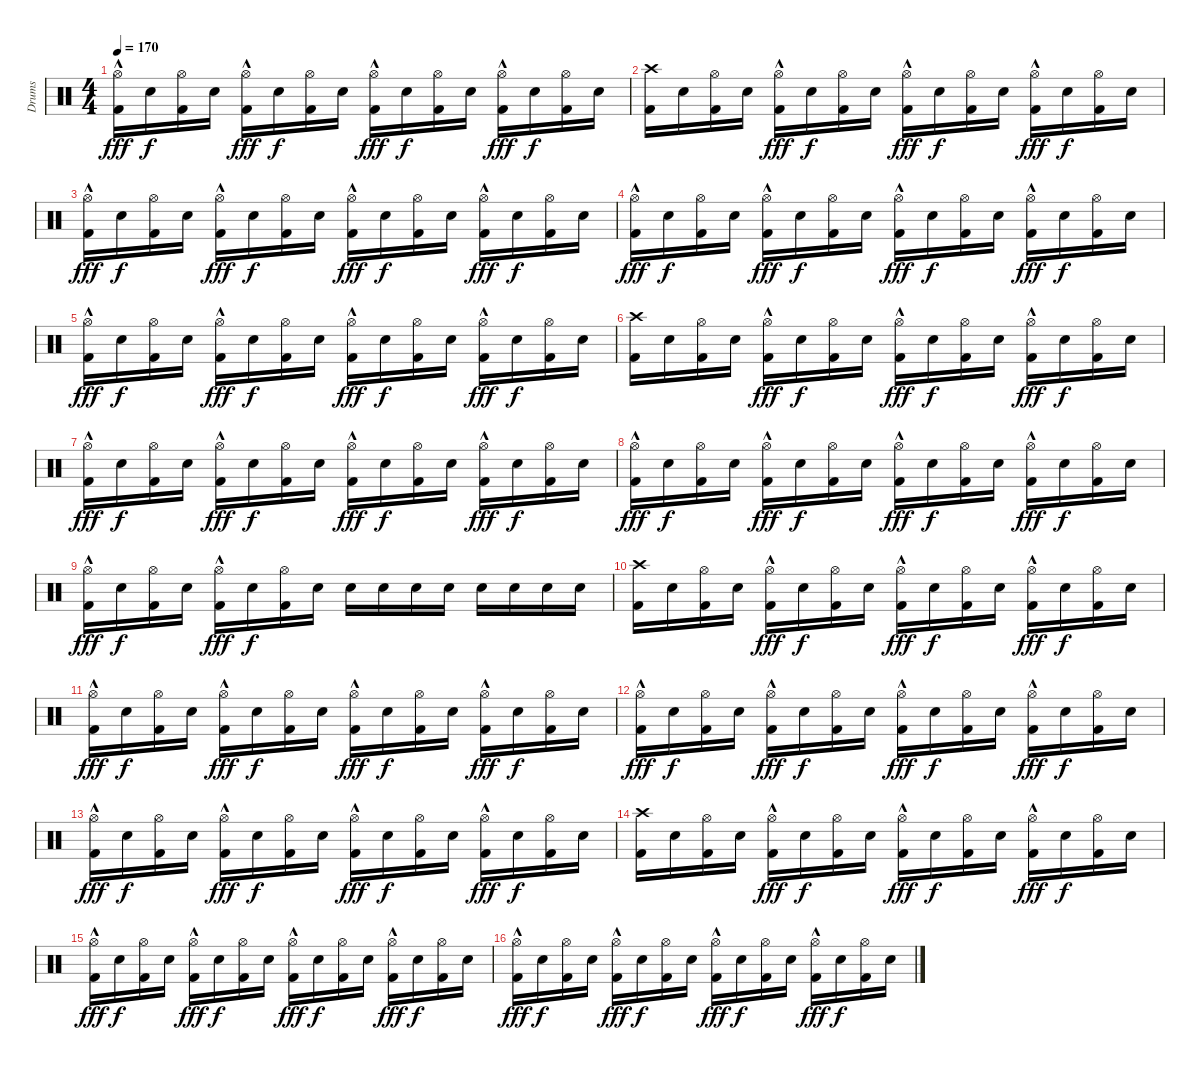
\track ("Drums" "Drums") {instrument percussion}
\staff {score}
\articulation defaults
\ts (4 4)
\tempo 170
\clef neutral
\ks c
("Hi-Hat (open)"{hac} "Kick (hit) 2").16{dy fff} "Snare (hit) 2".16{dy f} ("Hi-Hat (open)" "Kick (hit) 2").16 "Snare (hit) 2".16 ("Hi-Hat (open)"{hac} "Kick (hit) 2").16{dy fff} "Snare (hit) 2".16{dy f} ("Hi-Hat (open)" "Kick (hit) 2").16 "Snare (hit) 2".16 ("Hi-Hat (open)"{hac} "Kick (hit) 2").16{dy fff} "Snare (hit) 2".16{dy f} ("Hi-Hat (open)" "Kick (hit) 2").16 "Snare (hit) 2".16 ("Hi-Hat (open)"{hac} "Kick (hit) 2").16{dy fff} "Snare (hit) 2".16{dy f} ("Hi-Hat (open)" "Kick (hit) 2").16 "Snare (hit) 2".16 |
("Crash high (hit)" "Kick (hit) 2").16 "Snare (hit) 2".16 ("Hi-Hat (open)" "Kick (hit) 2").16 "Snare (hit) 2".16 ("Hi-Hat (open)"{hac} "Kick (hit) 2").16{dy fff} "Snare (hit) 2".16{dy f} ("Hi-Hat (open)" "Kick (hit) 2").16 "Snare (hit) 2".16 ("Hi-Hat (open)"{hac} "Kick (hit) 2").16{dy fff} "Snare (hit) 2".16{dy f} ("Hi-Hat (open)" "Kick (hit) 2").16 "Snare (hit) 2".16 ("Hi-Hat (open)"{hac} "Kick (hit) 2").16{dy fff} "Snare (hit) 2".16{dy f} ("Hi-Hat (open)" "Kick (hit) 2").16 "Snare (hit) 2".16 |
("Hi-Hat (open)"{hac} "Kick (hit) 2").16{dy fff} "Snare (hit) 2".16{dy f} ("Hi-Hat (open)" "Kick (hit) 2").16 "Snare (hit) 2".16 ("Hi-Hat (open)"{hac} "Kick (hit) 2").16{dy fff} "Snare (hit) 2".16{dy f} ("Hi-Hat (open)" "Kick (hit) 2").16 "Snare (hit) 2".16 ("Hi-Hat (open)"{hac} "Kick (hit) 2").16{dy fff} "Snare (hit) 2".16{dy f} ("Hi-Hat (open)" "Kick (hit) 2").16 "Snare (hit) 2".16 ("Hi-Hat (open)"{hac} "Kick (hit) 2").16{dy fff} "Snare (hit) 2".16{dy f} ("Hi-Hat (open)" "Kick (hit) 2").16 "Snare (hit) 2".16 |
("Hi-Hat (open)"{hac} "Kick (hit) 2").16{dy fff} "Snare (hit) 2".16{dy f} ("Hi-Hat (open)" "Kick (hit) 2").16 "Snare (hit) 2".16 ("Hi-Hat (open)"{hac} "Kick (hit) 2").16{dy fff} "Snare (hit) 2".16{dy f} ("Hi-Hat (open)" "Kick (hit) 2").16 "Snare (hit) 2".16 ("Hi-Hat (open)"{hac} "Kick (hit) 2").16{dy fff} "Snare (hit) 2".16{dy f} ("Hi-Hat (open)" "Kick (hit) 2").16 "Snare (hit) 2".16 ("Hi-Hat (open)"{hac} "Kick (hit) 2").16{dy fff} "Snare (hit) 2".16{dy f} ("Hi-Hat (open)" "Kick (hit) 2").16 "Snare (hit) 2".16 |
("Hi-Hat (open)"{hac} "Kick (hit) 2").16{dy fff} "Snare (hit) 2".16{dy f} ("Hi-Hat (open)" "Kick (hit) 2").16 "Snare (hit) 2".16 ("Hi-Hat (open)"{hac} "Kick (hit) 2").16{dy fff} "Snare (hit) 2".16{dy f} ("Hi-Hat (open)" "Kick (hit) 2").16 "Snare (hit) 2".16 ("Hi-Hat (open)"{hac} "Kick (hit) 2").16{dy fff} "Snare (hit) 2".16{dy f} ("Hi-Hat (open)" "Kick (hit) 2").16 "Snare (hit) 2".16 ("Hi-Hat (open)"{hac} "Kick (hit) 2").16{dy fff} "Snare (hit) 2".16{dy f} ("Hi-Hat (open)" "Kick (hit) 2").16 "Snare (hit) 2".16 |
("Crash high (hit)" "Kick (hit) 2").16 "Snare (hit) 2".16 ("Hi-Hat (open)" "Kick (hit) 2").16 "Snare (hit) 2".16 ("Hi-Hat (open)"{hac} "Kick (hit) 2").16{dy fff} "Snare (hit) 2".16{dy f} ("Hi-Hat (open)" "Kick (hit) 2").16 "Snare (hit) 2".16 ("Hi-Hat (open)"{hac} "Kick (hit) 2").16{dy fff} "Snare (hit) 2".16{dy f} ("Hi-Hat (open)" "Kick (hit) 2").16 "Snare (hit) 2".16 ("Hi-Hat (open)"{hac} "Kick (hit) 2").16{dy fff} "Snare (hit) 2".16{dy f} ("Hi-Hat (open)" "Kick (hit) 2").16 "Snare (hit) 2".16 |
("Hi-Hat (open)"{hac} "Kick (hit) 2").16{dy fff} "Snare (hit) 2".16{dy f} ("Hi-Hat (open)" "Kick (hit) 2").16 "Snare (hit) 2".16 ("Hi-Hat (open)"{hac} "Kick (hit) 2").16{dy fff} "Snare (hit) 2".16{dy f} ("Hi-Hat (open)" "Kick (hit) 2").16 "Snare (hit) 2".16 ("Hi-Hat (open)"{hac} "Kick (hit) 2").16{dy fff} "Snare (hit) 2".16{dy f} ("Hi-Hat (open)" "Kick (hit) 2").16 "Snare (hit) 2".16 ("Hi-Hat (open)"{hac} "Kick (hit) 2").16{dy fff} "Snare (hit) 2".16{dy f} ("Hi-Hat (open)" "Kick (hit) 2").16 "Snare (hit) 2".16 |
("Hi-Hat (open)"{hac} "Kick (hit) 2").16{dy fff} "Snare (hit) 2".16{dy f} ("Hi-Hat (open)" "Kick (hit) 2").16 "Snare (hit) 2".16 ("Hi-Hat (open)"{hac} "Kick (hit) 2").16{dy fff} "Snare (hit) 2".16{dy f} ("Hi-Hat (open)" "Kick (hit) 2").16 "Snare (hit) 2".16 ("Hi-Hat (open)"{hac} "Kick (hit) 2").16{dy fff} "Snare (hit) 2".16{dy f} ("Hi-Hat (open)" "Kick (hit) 2").16 "Snare (hit) 2".16 ("Hi-Hat (open)"{hac} "Kick (hit) 2").16{dy fff} "Snare (hit) 2".16{dy f} ("Hi-Hat (open)" "Kick (hit) 2").16 "Snare (hit) 2".16 |
("Hi-Hat (open)"{hac} "Kick (hit) 2").16{dy fff} "Snare (hit) 2".16{dy f} ("Hi-Hat (open)" "Kick (hit) 2").16 "Snare (hit) 2".16 ("Hi-Hat (open)"{hac} "Kick (hit) 2").16{dy fff} "Snare (hit) 2".16{dy f} ("Hi-Hat (open)" "Kick (hit) 2").16 "Snare (hit) 2".16 "Snare (hit) 2".16 "Snare (hit) 2".16 "Snare (hit) 2".16 "Snare (hit) 2".16 "Snare (hit) 2".16 "Snare (hit) 2".16 "Snare (hit) 2".16 "Snare (hit) 2".16 |
("Crash high (hit)" "Kick (hit) 2").16 "Snare (hit) 2".16 ("Hi-Hat (open)" "Kick (hit) 2").16 "Snare (hit) 2".16 ("Hi-Hat (open)"{hac} "Kick (hit) 2").16{dy fff} "Snare (hit) 2".16{dy f} ("Hi-Hat (open)" "Kick (hit) 2").16 "Snare (hit) 2".16 ("Hi-Hat (open)"{hac} "Kick (hit) 2").16{dy fff} "Snare (hit) 2".16{dy f} ("Hi-Hat (open)" "Kick (hit) 2").16 "Snare (hit) 2".16 ("Hi-Hat (open)"{hac} "Kick (hit) 2").16{dy fff} "Snare (hit) 2".16{dy f} ("Hi-Hat (open)" "Kick (hit) 2").16 "Snare (hit) 2".16 |
("Hi-Hat (open)"{hac} "Kick (hit) 2").16{dy fff} "Snare (hit) 2".16{dy f} ("Hi-Hat (open)" "Kick (hit) 2").16 "Snare (hit) 2".16 ("Hi-Hat (open)"{hac} "Kick (hit) 2").16{dy fff} "Snare (hit) 2".16{dy f} ("Hi-Hat (open)" "Kick (hit) 2").16 "Snare (hit) 2".16 ("Hi-Hat (open)"{hac} "Kick (hit) 2").16{dy fff} "Snare (hit) 2".16{dy f} ("Hi-Hat (open)" "Kick (hit) 2").16 "Snare (hit) 2".16 ("Hi-Hat (open)"{hac} "Kick (hit) 2").16{dy fff} "Snare (hit) 2".16{dy f} ("Hi-Hat (open)" "Kick (hit) 2").16 "Snare (hit) 2".16 |
("Hi-Hat (open)"{hac} "Kick (hit) 2").16{dy fff} "Snare (hit) 2".16{dy f} ("Hi-Hat (open)" "Kick (hit) 2").16 "Snare (hit) 2".16 ("Hi-Hat (open)"{hac} "Kick (hit) 2").16{dy fff} "Snare (hit) 2".16{dy f} ("Hi-Hat (open)" "Kick (hit) 2").16 "Snare (hit) 2".16 ("Hi-Hat (open)"{hac} "Kick (hit) 2").16{dy fff} "Snare (hit) 2".16{dy f} ("Hi-Hat (open)" "Kick (hit) 2").16 "Snare (hit) 2".16 ("Hi-Hat (open)"{hac} "Kick (hit) 2").16{dy fff} "Snare (hit) 2".16{dy f} ("Hi-Hat (open)" "Kick (hit) 2").16 "Snare (hit) 2".16 |
("Hi-Hat (open)"{hac} "Kick (hit) 2").16{dy fff} "Snare (hit) 2".16{dy f} ("Hi-Hat (open)" "Kick (hit) 2").16 "Snare (hit) 2".16 ("Hi-Hat (open)"{hac} "Kick (hit) 2").16{dy fff} "Snare (hit) 2".16{dy f} ("Hi-Hat (open)" "Kick (hit) 2").16 "Snare (hit) 2".16 ("Hi-Hat (open)"{hac} "Kick (hit) 2").16{dy fff} "Snare (hit) 2".16{dy f} ("Hi-Hat (open)" "Kick (hit) 2").16 "Snare (hit) 2".16 ("Hi-Hat (open)"{hac} "Kick (hit) 2").16{dy fff} "Snare (hit) 2".16{dy f} ("Hi-Hat (open)" "Kick (hit) 2").16 "Snare (hit) 2".16 |
("Crash high (hit)" "Kick (hit) 2").16 "Snare (hit) 2".16 ("Hi-Hat (open)" "Kick (hit) 2").16 "Snare (hit) 2".16 ("Hi-Hat (open)"{hac} "Kick (hit) 2").16{dy fff} "Snare (hit) 2".16{dy f} ("Hi-Hat (open)" "Kick (hit) 2").16 "Snare (hit) 2".16 ("Hi-Hat (open)"{hac} "Kick (hit) 2").16{dy fff} "Snare (hit) 2".16{dy f} ("Hi-Hat (open)" "Kick (hit) 2").16 "Snare (hit) 2".16 ("Hi-Hat (open)"{hac} "Kick (hit) 2").16{dy fff} "Snare (hit) 2".16{dy f} ("Hi-Hat (open)" "Kick (hit) 2").16 "Snare (hit) 2".16 |
("Hi-Hat (open)"{hac} "Kick (hit) 2").16{dy fff} "Snare (hit) 2".16{dy f} ("Hi-Hat (open)" "Kick (hit) 2").16 "Snare (hit) 2".16 ("Hi-Hat (open)"{hac} "Kick (hit) 2").16{dy fff} "Snare (hit) 2".16{dy f} ("Hi-Hat (open)" "Kick (hit) 2").16 "Snare (hit) 2".16 ("Hi-Hat (open)"{hac} "Kick (hit) 2").16{dy fff} "Snare (hit) 2".16{dy f} ("Hi-Hat (open)" "Kick (hit) 2").16 "Snare (hit) 2".16 ("Hi-Hat (open)"{hac} "Kick (hit) 2").16{dy fff} "Snare (hit) 2".16{dy f} ("Hi-Hat (open)" "Kick (hit) 2").16 "Snare (hit) 2".16 |
("Hi-Hat (open)"{hac} "Kick (hit) 2").16{dy fff} "Snare (hit) 2".16{dy f} ("Hi-Hat (open)" "Kick (hit) 2").16 "Snare (hit) 2".16 ("Hi-Hat (open)"{hac} "Kick (hit) 2").16{dy fff} "Snare (hit) 2".16{dy f} ("Hi-Hat (open)" "Kick (hit) 2").16 "Snare (hit) 2".16 ("Hi-Hat (open)"{hac} "Kick (hit) 2").16{dy fff} "Snare (hit) 2".16{dy f} ("Hi-Hat (open)" "Kick (hit) 2").16 "Snare (hit) 2".16 ("Hi-Hat (open)"{hac} "Kick (hit) 2").16{dy fff} "Snare (hit) 2".16{dy f} ("Hi-Hat (open)" "Kick (hit) 2").16 "Snare (hit) 2".16
